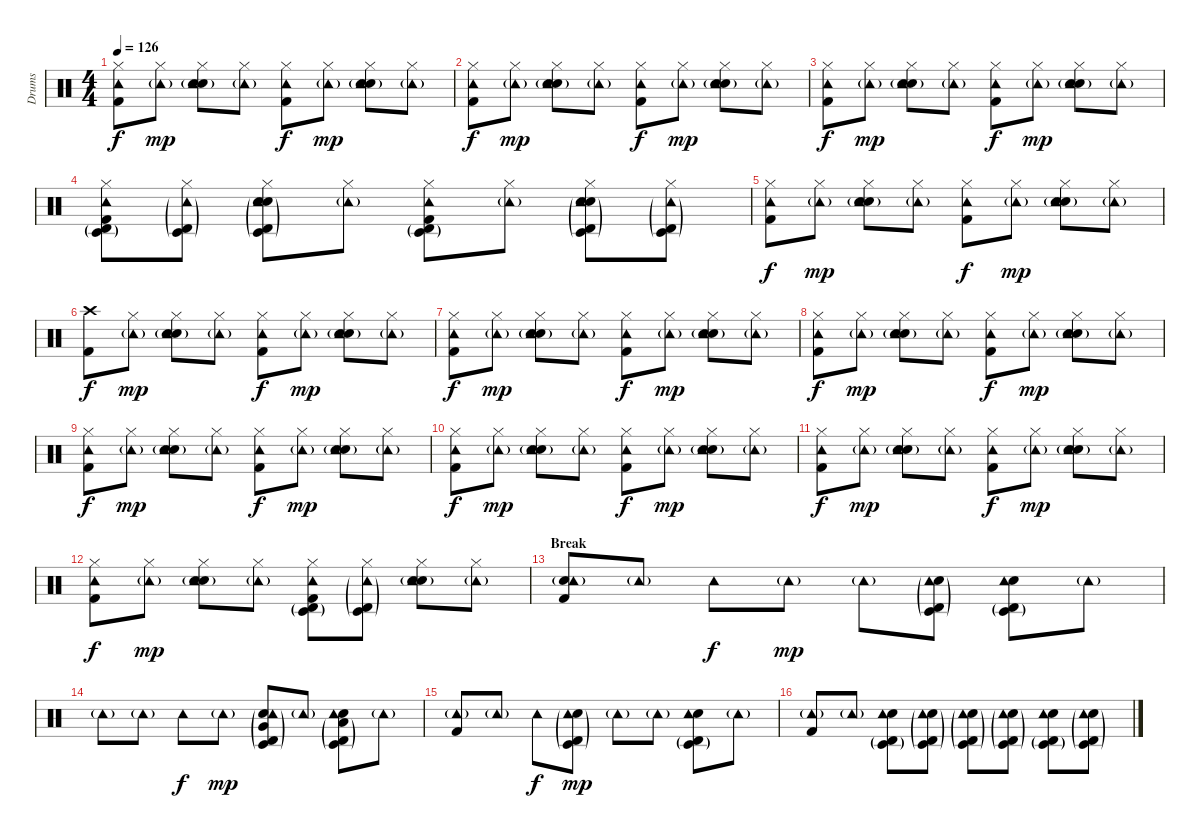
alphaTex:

\track ("Drums" "Drums") {instrument percussion}
\staff {score}
\articulation defaults
\ts (4 4)
\tempo 126
\clef neutral
\ks c
("Kick (hit) 2" "Hi-Hat (closed)" "Tambourine (hit)").8{dy f} ("Hi-Hat (closed)" "Tambourine (hit)"{g}).8{dy mp} ("Snare (hit) 2" "Hi-Hat (closed)" "Tambourine (hit)" "Hand Clap (hit)"{g}).8 ("Hi-Hat (closed)" "Tambourine (hit)"{g}).8 ("Kick (hit) 2" "Hi-Hat (closed)" "Tambourine (hit)").8{dy f} ("Hi-Hat (closed)" "Tambourine (hit)"{g}).8{dy mp} ("Snare (hit) 2" "Hi-Hat (closed)" "Tambourine (hit)" "Hand Clap (hit)"{g}).8 ("Hi-Hat (closed)" "Tambourine (hit)"{g}).8 |
("Kick (hit) 2" "Hi-Hat (closed)" "Tambourine (hit)").8{dy f} ("Hi-Hat (closed)" "Tambourine (hit)"{g}).8{dy mp} ("Snare (hit) 2" "Hi-Hat (closed)" "Tambourine (hit)" "Hand Clap (hit)"{g}).8 ("Hi-Hat (closed)" "Tambourine (hit)"{g}).8 ("Kick (hit) 2" "Hi-Hat (closed)" "Tambourine (hit)").8{dy f} ("Hi-Hat (closed)" "Tambourine (hit)"{g}).8{dy mp} ("Snare (hit) 2" "Hi-Hat (closed)" "Tambourine (hit)" "Hand Clap (hit)"{g}).8 ("Hi-Hat (closed)" "Tambourine (hit)"{g}).8 |
("Kick (hit) 2" "Hi-Hat (closed)" "Tambourine (hit)").8{dy f} ("Hi-Hat (closed)" "Tambourine (hit)"{g}).8{dy mp} ("Snare (hit) 2" "Hi-Hat (closed)" "Tambourine (hit)" "Hand Clap (hit)"{g}).8 ("Hi-Hat (closed)" "Tambourine (hit)"{g}).8 ("Kick (hit) 2" "Hi-Hat (closed)" "Tambourine (hit)").8{dy f} ("Hi-Hat (closed)" "Tambourine (hit)"{g}).8{dy mp} ("Snare (hit) 2" "Hi-Hat (closed)" "Tambourine (hit)" "Hand Clap (hit)"{g}).8 ("Hi-Hat (closed)" "Tambourine (hit)"{g}).8 |
("Kick (hit) 2" "Timbale low (hit)"{g} "Timbale high (hit)"{g} "Hi-Hat (closed)" "Tambourine (hit)").8 ("Timbale low (hit)"{g} "Timbale high (hit)"{g} "Hi-Hat (closed)" "Tambourine (hit)"{g}).8 ("Timbale high (hit)"{g} "Timbale low (hit)"{g} "Snare (hit) 2" "Hi-Hat (closed)" "Tambourine (hit)" "Hand Clap (hit)"{g}).8 ("Hi-Hat (closed)" "Tambourine (hit)"{g}).8 ("Kick (hit) 2" "Timbale high (hit)"{g} "Timbale low (hit)"{g} "Hi-Hat (closed)" "Tambourine (hit)").8 ("Hi-Hat (closed)" "Tambourine (hit)"{g}).8 ("Timbale low (hit)"{g} "Timbale high (hit)"{g} "Snare (hit) 2" "Hi-Hat (closed)" "Tambourine (hit)" "Hand Clap (hit)"{g}).8 ("Timbale high (hit)"{g} "Timbale low (hit)"{g} "Hi-Hat (closed)" "Tambourine (hit)"{g}).8 |
\section ("" "")
("Kick (hit) 2" "Hi-Hat (closed)" "Tambourine (hit)").8{dy f} ("Hi-Hat (closed)" "Tambourine (hit)"{g}).8{dy mp} ("Snare (hit) 2" "Hi-Hat (closed)" "Tambourine (hit)" "Hand Clap (hit)"{g}).8 ("Hi-Hat (closed)" "Tambourine (hit)"{g}).8 ("Kick (hit) 2" "Hi-Hat (closed)" "Tambourine (hit)").8{dy f} ("Hi-Hat (closed)" "Tambourine (hit)"{g}).8{dy mp} ("Snare (hit) 2" "Hi-Hat (closed)" "Tambourine (hit)" "Hand Clap (hit)"{g}).8 ("Hi-Hat (closed)" "Tambourine (hit)"{g}).8 |
("Kick (hit) 2" "Crash high (hit)").8{dy f} ("Hi-Hat (closed)" "Tambourine (hit)"{g}).8{dy mp} ("Snare (hit) 2" "Hi-Hat (closed)" "Tambourine (hit)" "Hand Clap (hit)"{g}).8 ("Hi-Hat (closed)" "Tambourine (hit)"{g}).8 ("Kick (hit) 2" "Hi-Hat (closed)" "Tambourine (hit)").8{dy f} ("Hi-Hat (closed)" "Tambourine (hit)"{g}).8{dy mp} ("Snare (hit) 2" "Hi-Hat (closed)" "Tambourine (hit)" "Hand Clap (hit)"{g}).8 ("Hi-Hat (closed)" "Tambourine (hit)"{g}).8 |
("Kick (hit) 2" "Hi-Hat (closed)" "Tambourine (hit)").8{dy f} ("Hi-Hat (closed)" "Tambourine (hit)"{g}).8{dy mp} ("Snare (hit) 2" "Hi-Hat (closed)" "Tambourine (hit)" "Hand Clap (hit)"{g}).8 ("Hi-Hat (closed)" "Tambourine (hit)"{g}).8 ("Kick (hit) 2" "Hi-Hat (closed)" "Tambourine (hit)").8{dy f} ("Hi-Hat (closed)" "Tambourine (hit)"{g}).8{dy mp} ("Snare (hit) 2" "Hi-Hat (closed)" "Tambourine (hit)" "Hand Clap (hit)"{g}).8 ("Hi-Hat (closed)" "Tambourine (hit)"{g}).8 |
("Kick (hit) 2" "Hi-Hat (closed)" "Tambourine (hit)").8{dy f} ("Hi-Hat (closed)" "Tambourine (hit)"{g}).8{dy mp} ("Snare (hit) 2" "Hi-Hat (closed)" "Tambourine (hit)" "Hand Clap (hit)"{g}).8 ("Hi-Hat (closed)" "Tambourine (hit)"{g}).8 ("Kick (hit) 2" "Hi-Hat (closed)" "Tambourine (hit)").8{dy f} ("Hi-Hat (closed)" "Tambourine (hit)"{g}).8{dy mp} ("Snare (hit) 2" "Hi-Hat (closed)" "Tambourine (hit)" "Hand Clap (hit)"{g}).8 ("Hi-Hat (closed)" "Tambourine (hit)"{g}).8 |
("Kick (hit) 2" "Hi-Hat (closed)" "Tambourine (hit)").8{dy f} ("Hi-Hat (closed)" "Tambourine (hit)"{g}).8{dy mp} ("Snare (hit) 2" "Hi-Hat (closed)" "Tambourine (hit)" "Hand Clap (hit)"{g}).8 ("Hi-Hat (closed)" "Tambourine (hit)"{g}).8 ("Kick (hit) 2" "Hi-Hat (closed)" "Tambourine (hit)").8{dy f} ("Hi-Hat (closed)" "Tambourine (hit)"{g}).8{dy mp} ("Snare (hit) 2" "Hi-Hat (closed)" "Tambourine (hit)" "Hand Clap (hit)"{g}).8 ("Hi-Hat (closed)" "Tambourine (hit)"{g}).8 |
("Kick (hit) 2" "Hi-Hat (closed)" "Tambourine (hit)").8{dy f} ("Hi-Hat (closed)" "Tambourine (hit)"{g}).8{dy mp} ("Snare (hit) 2" "Hi-Hat (closed)" "Tambourine (hit)" "Hand Clap (hit)"{g}).8 ("Hi-Hat (closed)" "Tambourine (hit)"{g}).8 ("Kick (hit) 2" "Hi-Hat (closed)" "Tambourine (hit)").8{dy f} ("Hi-Hat (closed)" "Tambourine (hit)"{g}).8{dy mp} ("Snare (hit) 2" "Hi-Hat (closed)" "Tambourine (hit)" "Hand Clap (hit)"{g}).8 ("Hi-Hat (closed)" "Tambourine (hit)"{g}).8 |
("Kick (hit) 2" "Hi-Hat (closed)" "Tambourine (hit)").8{dy f} ("Hi-Hat (closed)" "Tambourine (hit)"{g}).8{dy mp} ("Snare (hit) 2" "Hi-Hat (closed)" "Tambourine (hit)" "Hand Clap (hit)"{g}).8 ("Hi-Hat (closed)" "Tambourine (hit)"{g}).8 ("Kick (hit) 2" "Hi-Hat (closed)" "Tambourine (hit)").8{dy f} ("Hi-Hat (closed)" "Tambourine (hit)"{g}).8{dy mp} ("Snare (hit) 2" "Hi-Hat (closed)" "Tambourine (hit)" "Hand Clap (hit)"{g}).8 ("Hi-Hat (closed)" "Tambourine (hit)"{g}).8 |
("Kick (hit) 2" "Hi-Hat (closed)" "Tambourine (hit)").8{dy f} ("Hi-Hat (closed)" "Tambourine (hit)"{g}).8{dy mp} ("Snare (hit) 2" "Hi-Hat (closed)" "Tambourine (hit)" "Hand Clap (hit)"{g}).8 ("Hi-Hat (closed)" "Tambourine (hit)"{g}).8 ("Kick (hit) 2" "Timbale low (hit)"{g} "Timbale high (hit)"{g} "Hi-Hat (closed)" "Tambourine (hit)").8 ("Timbale low (hit)"{g} "Timbale high (hit)"{g} "Hi-Hat (closed)" "Tambourine (hit)"{g}).8 ("Snare (hit) 2" "Hi-Hat (closed)" "Tambourine (hit)" "Hand Clap (hit)"{g}).8 ("Hi-Hat (closed)" "Tambourine (hit)"{g}).8 |
\section ("" "Break")
("Kick (hit) 2" "Snare (hit) 2" "Tambourine (hit)"{g}).8 "Tambourine (hit)"{g}.8 "Tambourine (hit)".8{dy f} "Tambourine (hit)"{g}.8{dy mp} "Tambourine (hit)"{g}.8 ("Electric Snare (hit)" "Timbale high (hit)"{g} "Timbale low (hit)"{g} "Tambourine (hit)"{g}).8 ("Electric Snare (hit)" "Timbale high (hit)"{g} "Timbale low (hit)"{g} "Tambourine (hit)").8 "Tambourine (hit)"{g}.8 |
"Tambourine (hit)"{g}.8 "Tambourine (hit)"{g}.8 "Tambourine (hit)".8{dy f} "Tambourine (hit)"{g}.8{dy mp} ("Electric Snare (hit)" "Very Low Tom (hit)"{g} "Timbale high (hit)"{g} "Timbale low (hit)"{g} "Tambourine (hit)"{g}).8 "Tambourine (hit)"{g}.8 ("Electric Snare (hit)" "Low Floor Tom (hit)"{g} "Timbale high (hit)"{g} "Timbale low (hit)"{g} "Tambourine (hit)").8 "Tambourine (hit)"{g}.8 |
("Kick (hit) 2" "Tambourine (hit)"{g}).8 "Tambourine (hit)"{g}.8 "Tambourine (hit)".8{dy f} ("Electric Snare (hit)" "Timbale high (hit)"{g} "Timbale low (hit)"{g} "Tambourine (hit)"{g}).8{dy mp} "Tambourine (hit)"{g}.8 "Tambourine (hit)"{g}.8 ("Electric Snare (hit)" "Timbale high (hit)"{g} "Timbale low (hit)"{g} "Tambourine (hit)").8 "Tambourine (hit)"{g}.8 |
("Kick (hit) 2" "Tambourine (hit)"{g}).8 "Tambourine (hit)"{g}.8 ("Electric Snare (hit)" "Timbale high (hit)"{g} "Timbale low (hit)"{g} "Tambourine (hit)").8 ("Electric Snare (hit)" "Timbale high (hit)"{g} "Timbale low (hit)"{g} "Tambourine (hit)"{g}).8 ("Electric Snare (hit)" "Timbale high (hit)"{g} "Timbale low (hit)"{g} "Tambourine (hit)"{g}).8 ("Electric Snare (hit)" "Timbale high (hit)"{g} "Timbale low (hit)"{g} "Tambourine (hit)"{g}).8 ("Electric Snare (hit)" "Timbale high (hit)"{g} "Timbale low (hit)"{g} "Tambourine (hit)").8 ("Electric Snare (hit)" "Timbale high (hit)"{g} "Timbale low (hit)"{g} "Tambourine (hit)"{g}).8
